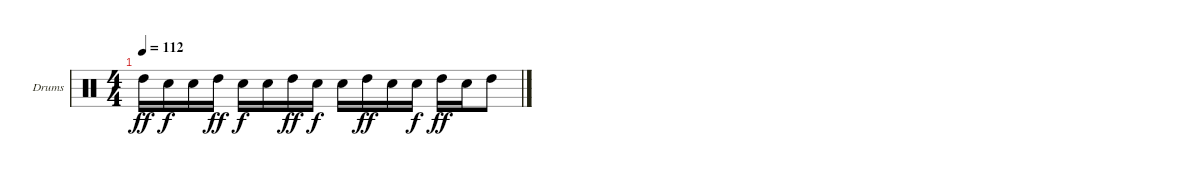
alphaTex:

\bracketExtendMode groupsimilarinstruments
\firstSystemTrackNameOrientation horizontal
\otherSystemsTrackNameOrientation horizontal
\track ("Drumkit" "Drums") {instrument percussion}
\staff {score}
\articulation defaults
\ts (4 4)
\tempo 112
\clef neutral
\ks c "High Tom (hit)".16{dy ff} "Snare (hit) 2".16{dy f} "Snare (hit) 2".16 "High Tom (hit)".16{dy ff} "Snare (hit) 2".16{dy f} "Snare (hit) 2".16 "High Tom (hit)".16{dy ff} "Snare (hit) 2".16{dy f} "Snare (hit) 2".16 "High Tom (hit)".16{dy ff} "Snare (hit) 2".16 "Snare (hit) 2".16{dy f} "High Tom (hit)".16{dy ff} "Snare (hit) 2".16 "High Tom (hit)".8
